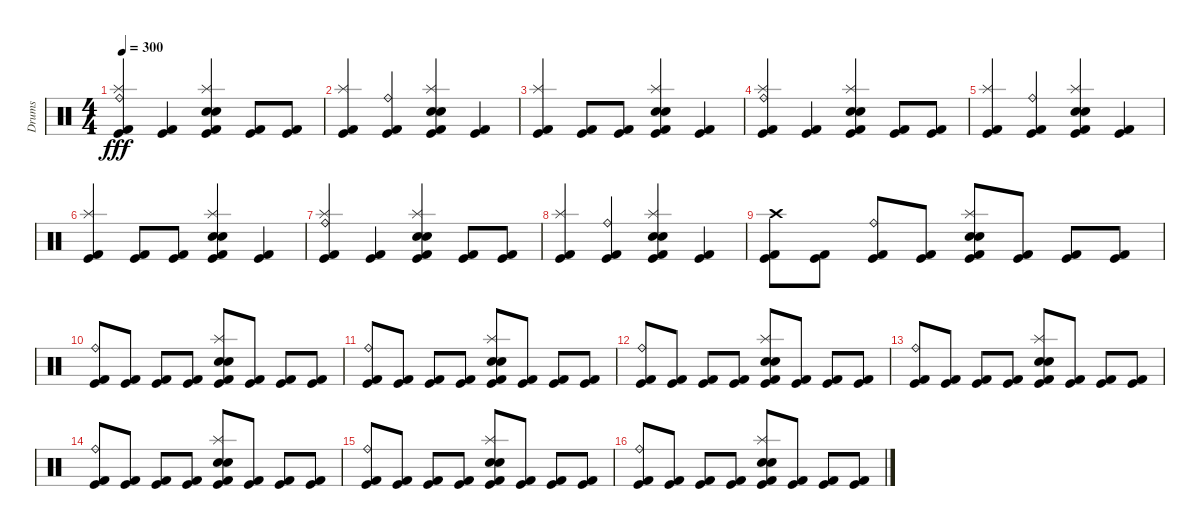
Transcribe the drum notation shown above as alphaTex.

\track ("Drums" "Drums") {instrument percussion}
\staff {score}
\articulation defaults
\ts (4 4)
\tempo 300
\clef neutral
\ks c
("Kick (hit) 2" "Ride (bell)" "Splash (hit)" "Kick (hit)").4{dy fff} ("Kick (hit) 2" "Kick (hit)").4 ("Kick (hit) 2" "Electric Snare (hit)" "Snare (hit) 2" "Splash (hit)" "Kick (hit)").4 ("Kick (hit) 2" "Kick (hit)").8 ("Kick (hit) 2" "Kick (hit)").8 |
("Kick (hit) 2" "Splash (hit)" "Kick (hit)").4 ("Kick (hit) 2" "Ride (bell)" "Kick (hit)").4 ("Kick (hit) 2" "Snare (hit) 2" "Electric Snare (hit)" "Splash (hit)" "Kick (hit)").4 ("Kick (hit) 2" "Kick (hit)").4 |
("Kick (hit) 2" "Splash (hit)" "Kick (hit)").4 ("Kick (hit) 2" "Kick (hit)").8 ("Kick (hit) 2" "Kick (hit)").8 ("Kick (hit) 2" "Snare (hit) 2" "Electric Snare (hit)" "Splash (hit)" "Kick (hit)").4 ("Kick (hit) 2" "Kick (hit)").4 |
("Kick (hit) 2" "Ride (bell)" "Splash (hit)" "Kick (hit)").4 ("Kick (hit) 2" "Kick (hit)").4 ("Kick (hit) 2" "Electric Snare (hit)" "Snare (hit) 2" "Splash (hit)" "Kick (hit)").4 ("Kick (hit) 2" "Kick (hit)").8 ("Kick (hit) 2" "Kick (hit)").8 |
("Kick (hit) 2" "Splash (hit)" "Kick (hit)").4 ("Kick (hit) 2" "Ride (bell)" "Kick (hit)").4 ("Kick (hit) 2" "Snare (hit) 2" "Electric Snare (hit)" "Splash (hit)" "Kick (hit)").4 ("Kick (hit) 2" "Kick (hit)").4 |
("Kick (hit) 2" "Splash (hit)" "Kick (hit)").4 ("Kick (hit) 2" "Kick (hit)").8 ("Kick (hit) 2" "Kick (hit)").8 ("Kick (hit) 2" "Snare (hit) 2" "Electric Snare (hit)" "Splash (hit)" "Kick (hit)").4 ("Kick (hit) 2" "Kick (hit)").4 |
("Kick (hit) 2" "Ride (bell)" "Splash (hit)" "Kick (hit)").4 ("Kick (hit) 2" "Kick (hit)").4 ("Kick (hit) 2" "Electric Snare (hit)" "Snare (hit) 2" "Splash (hit)" "Kick (hit)").4 ("Kick (hit) 2" "Kick (hit)").8 ("Kick (hit) 2" "Kick (hit)").8 |
("Kick (hit) 2" "Splash (hit)" "Kick (hit)").4 ("Kick (hit) 2" "Ride (bell)" "Kick (hit)").4 ("Kick (hit) 2" "Snare (hit) 2" "Electric Snare (hit)" "Splash (hit)" "Kick (hit)").4 ("Kick (hit) 2" "Kick (hit)").4 |
("Crash high (hit)" "Kick (hit) 2" "Kick (hit)").8 ("Kick (hit) 2" "Kick (hit)").8 ("Kick (hit) 2" "Ride (bell)" "Kick (hit)").8 ("Kick (hit) 2" "Kick (hit)").8 ("Kick (hit) 2" "Splash (hit)" "Snare (hit) 2" "Electric Snare (hit)" "Kick (hit)").8 ("Kick (hit) 2" "Kick (hit)").8 ("Kick (hit) 2" "Kick (hit)").8 ("Kick (hit) 2" "Kick (hit)").8 |
("Kick (hit) 2" "Ride (bell)" "Kick (hit)").8 ("Kick (hit) 2" "Kick (hit)").8 ("Kick (hit) 2" "Kick (hit)").8 ("Kick (hit) 2" "Kick (hit)").8 ("Kick (hit) 2" "Splash (hit)" "Snare (hit) 2" "Electric Snare (hit)" "Kick (hit)").8 ("Kick (hit) 2" "Kick (hit)").8 ("Kick (hit) 2" "Kick (hit)").8 ("Kick (hit) 2" "Kick (hit)").8 |
("Kick (hit) 2" "Ride (bell)" "Kick (hit)").8 ("Kick (hit) 2" "Kick (hit)").8 ("Kick (hit) 2" "Kick (hit)").8 ("Kick (hit) 2" "Kick (hit)").8 ("Kick (hit) 2" "Splash (hit)" "Snare (hit) 2" "Electric Snare (hit)" "Kick (hit)").8 ("Kick (hit) 2" "Kick (hit)").8 ("Kick (hit) 2" "Kick (hit)").8 ("Kick (hit) 2" "Kick (hit)").8 |
("Kick (hit) 2" "Ride (bell)" "Kick (hit)").8 ("Kick (hit) 2" "Kick (hit)").8 ("Kick (hit) 2" "Kick (hit)").8 ("Kick (hit) 2" "Kick (hit)").8 ("Kick (hit) 2" "Splash (hit)" "Snare (hit) 2" "Electric Snare (hit)" "Kick (hit)").8 ("Kick (hit) 2" "Kick (hit)").8 ("Kick (hit) 2" "Kick (hit)").8 ("Kick (hit) 2" "Kick (hit)").8 |
("Kick (hit) 2" "Ride (bell)" "Kick (hit)").8 ("Kick (hit) 2" "Kick (hit)").8 ("Kick (hit) 2" "Kick (hit)").8 ("Kick (hit) 2" "Kick (hit)").8 ("Kick (hit) 2" "Splash (hit)" "Snare (hit) 2" "Electric Snare (hit)" "Kick (hit)").8 ("Kick (hit) 2" "Kick (hit)").8 ("Kick (hit) 2" "Kick (hit)").8 ("Kick (hit) 2" "Kick (hit)").8 |
("Kick (hit) 2" "Ride (bell)" "Kick (hit)").8 ("Kick (hit) 2" "Kick (hit)").8 ("Kick (hit) 2" "Kick (hit)").8 ("Kick (hit) 2" "Kick (hit)").8 ("Kick (hit) 2" "Splash (hit)" "Snare (hit) 2" "Electric Snare (hit)" "Kick (hit)").8 ("Kick (hit) 2" "Kick (hit)").8 ("Kick (hit) 2" "Kick (hit)").8 ("Kick (hit) 2" "Kick (hit)").8 |
("Kick (hit) 2" "Ride (bell)" "Kick (hit)").8 ("Kick (hit) 2" "Kick (hit)").8 ("Kick (hit) 2" "Kick (hit)").8 ("Kick (hit) 2" "Kick (hit)").8 ("Kick (hit) 2" "Splash (hit)" "Snare (hit) 2" "Electric Snare (hit)" "Kick (hit)").8 ("Kick (hit) 2" "Kick (hit)").8 ("Kick (hit) 2" "Kick (hit)").8 ("Kick (hit) 2" "Kick (hit)").8 |
("Kick (hit) 2" "Ride (bell)" "Kick (hit)").8 ("Kick (hit) 2" "Kick (hit)").8 ("Kick (hit) 2" "Kick (hit)").8 ("Kick (hit) 2" "Kick (hit)").8 ("Kick (hit) 2" "Splash (hit)" "Snare (hit) 2" "Electric Snare (hit)" "Kick (hit)").8 ("Kick (hit) 2" "Kick (hit)").8 ("Kick (hit) 2" "Kick (hit)").8 ("Kick (hit) 2" "Kick (hit)").8
